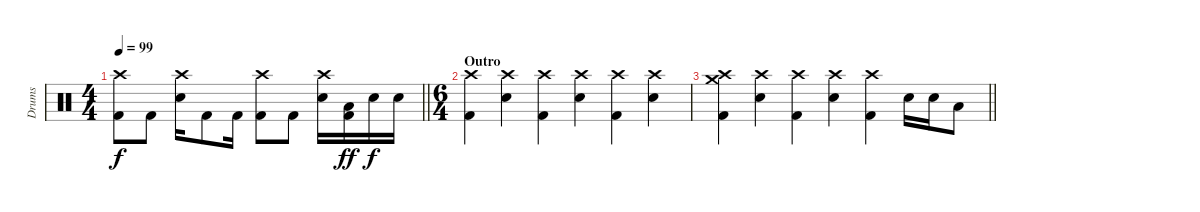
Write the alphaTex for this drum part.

\track ("Drums" "Drums") {instrument percussion}
\staff {score}
\articulation defaults
\ts (4 4)
\tempo 99
\clef neutral
\barLineRight lightlight
\ks c
("Crash high (hit)" "Kick (hit) 2").8{dy f} "Kick (hit) 2".8 ("Crash high (hit)" "Electric Snare (hit)").16 "Kick (hit) 2".8 "Kick (hit) 2".16 ("Crash high (hit)" "Kick (hit) 2").8 "Kick (hit) 2".8 ("Crash high (hit)" "Electric Snare (hit)").16 ("Low Floor Tom (hit)" "Kick (hit) 2").16{dy ff} "Electric Snare (hit)".16{dy f} "Electric Snare (hit)".16 |
\ts (6 4)
\section ("" "Outro")
("Crash high (hit)" "Kick (hit) 2").4 ("Crash high (hit)" "Electric Snare (hit)").4 ("Crash high (hit)" "Kick (hit) 2").4 ("Crash high (hit)" "Electric Snare (hit)").4 ("Crash high (hit)" "Kick (hit) 2").4 ("Crash high (hit)" "Electric Snare (hit)").4 |
\barLineRight lightlight
("Crash medium (hit)" "Crash high (hit)" "Kick (hit) 2").4 ("Crash high (hit)" "Electric Snare (hit)").4 ("Crash high (hit)" "Kick (hit) 2").4 ("Crash high (hit)" "Electric Snare (hit)").4 ("Crash high (hit)" "Kick (hit) 2").4 "Electric Snare (hit)".16 "Electric Snare (hit)".16 "Low Floor Tom (hit)".8
